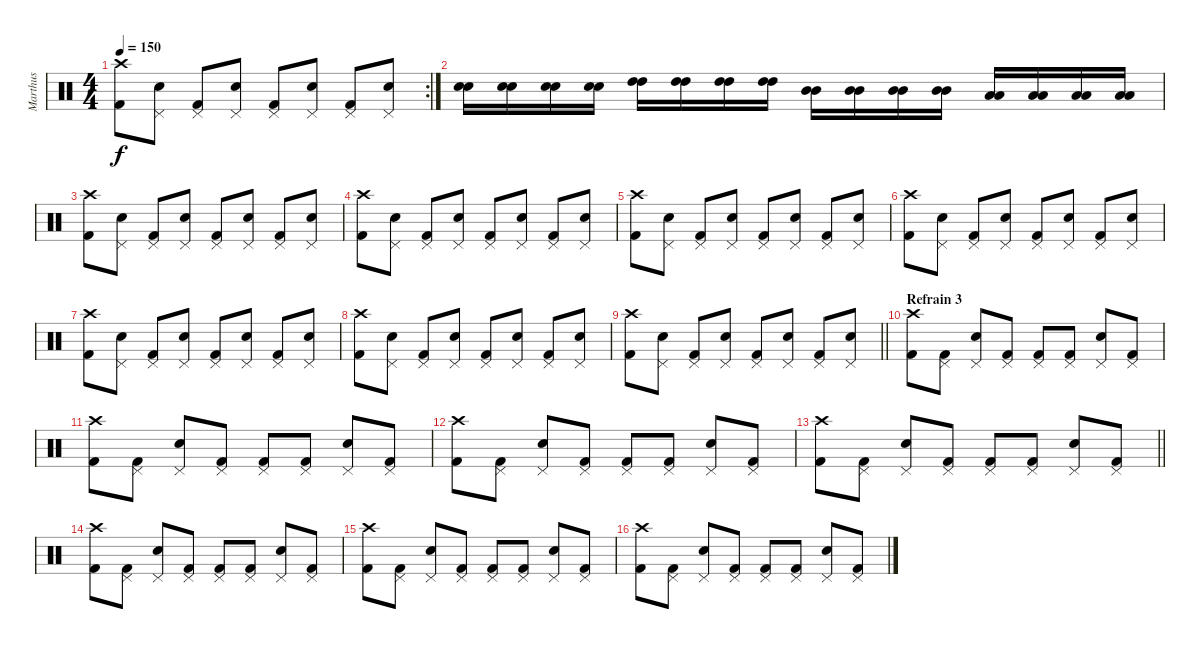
\track ("Marthus" "Marthus") {instrument percussion}
\staff {score}
\articulation defaults
\rc 2
\ts (4 4)
\tempo 150
\clef neutral
\ks c
("Kick (hit) 2" "Crash high (hit)").8{dy f} ("Electric Snare (hit)" "Pedal Hi-Hat (hit)").8 ("Kick (hit) 2" "Pedal Hi-Hat (hit)").8 ("Electric Snare (hit)" "Pedal Hi-Hat (hit)").8 ("Kick (hit) 2" "Pedal Hi-Hat (hit)").8 ("Electric Snare (hit)" "Pedal Hi-Hat (hit)").8 ("Kick (hit) 2" "Pedal Hi-Hat (hit)").8 ("Electric Snare (hit)" "Pedal Hi-Hat (hit)").8 |
("Electric Snare (hit)" "Electric Snare (hit)").16 ("Electric Snare (hit)" "Electric Snare (hit)").16 ("Electric Snare (hit)" "Electric Snare (hit)").16 ("Electric Snare (hit)" "Electric Snare (hit)").16 ("High Tom (hit)" "High Tom (hit)").16 ("High Tom (hit)" "High Tom (hit)").16 ("High Tom (hit)" "High Tom (hit)").16 ("High Tom (hit)" "High Tom (hit)").16 ("Mid Tom (hit)" "Mid Tom (hit)").16 ("Mid Tom (hit)" "Mid Tom (hit)").16 ("Mid Tom (hit)" "Mid Tom (hit)").16 ("Mid Tom (hit)" "Mid Tom (hit)").16 ("Low Tom (hit)" "Low Tom (hit)").16 ("Low Tom (hit)" "Low Tom (hit)").16 ("Low Tom (hit)" "Low Tom (hit)").16 ("Low Tom (hit)" "Low Tom (hit)").16 |
("Kick (hit) 2" "Crash high (hit)").8 ("Electric Snare (hit)" "Pedal Hi-Hat (hit)").8 ("Kick (hit) 2" "Pedal Hi-Hat (hit)").8 ("Electric Snare (hit)" "Pedal Hi-Hat (hit)").8 ("Kick (hit) 2" "Pedal Hi-Hat (hit)").8 ("Electric Snare (hit)" "Pedal Hi-Hat (hit)").8 ("Kick (hit) 2" "Pedal Hi-Hat (hit)").8 ("Electric Snare (hit)" "Pedal Hi-Hat (hit)").8 |
("Kick (hit) 2" "Crash high (hit)").8 ("Electric Snare (hit)" "Pedal Hi-Hat (hit)").8 ("Kick (hit) 2" "Pedal Hi-Hat (hit)").8 ("Electric Snare (hit)" "Pedal Hi-Hat (hit)").8 ("Kick (hit) 2" "Pedal Hi-Hat (hit)").8 ("Electric Snare (hit)" "Pedal Hi-Hat (hit)").8 ("Kick (hit) 2" "Pedal Hi-Hat (hit)").8 ("Electric Snare (hit)" "Pedal Hi-Hat (hit)").8 |
("Kick (hit) 2" "Crash high (hit)").8 ("Electric Snare (hit)" "Pedal Hi-Hat (hit)").8 ("Kick (hit) 2" "Pedal Hi-Hat (hit)").8 ("Electric Snare (hit)" "Pedal Hi-Hat (hit)").8 ("Kick (hit) 2" "Pedal Hi-Hat (hit)").8 ("Electric Snare (hit)" "Pedal Hi-Hat (hit)").8 ("Kick (hit) 2" "Pedal Hi-Hat (hit)").8 ("Electric Snare (hit)" "Pedal Hi-Hat (hit)").8 |
("Kick (hit) 2" "Crash high (hit)").8 ("Electric Snare (hit)" "Pedal Hi-Hat (hit)").8 ("Kick (hit) 2" "Pedal Hi-Hat (hit)").8 ("Electric Snare (hit)" "Pedal Hi-Hat (hit)").8 ("Kick (hit) 2" "Pedal Hi-Hat (hit)").8 ("Electric Snare (hit)" "Pedal Hi-Hat (hit)").8 ("Kick (hit) 2" "Pedal Hi-Hat (hit)").8 ("Electric Snare (hit)" "Pedal Hi-Hat (hit)").8 |
("Kick (hit) 2" "Crash high (hit)").8 ("Electric Snare (hit)" "Pedal Hi-Hat (hit)").8 ("Kick (hit) 2" "Pedal Hi-Hat (hit)").8 ("Electric Snare (hit)" "Pedal Hi-Hat (hit)").8 ("Kick (hit) 2" "Pedal Hi-Hat (hit)").8 ("Electric Snare (hit)" "Pedal Hi-Hat (hit)").8 ("Kick (hit) 2" "Pedal Hi-Hat (hit)").8 ("Electric Snare (hit)" "Pedal Hi-Hat (hit)").8 |
("Kick (hit) 2" "Crash high (hit)").8 ("Electric Snare (hit)" "Pedal Hi-Hat (hit)").8 ("Kick (hit) 2" "Pedal Hi-Hat (hit)").8 ("Electric Snare (hit)" "Pedal Hi-Hat (hit)").8 ("Kick (hit) 2" "Pedal Hi-Hat (hit)").8 ("Electric Snare (hit)" "Pedal Hi-Hat (hit)").8 ("Kick (hit) 2" "Pedal Hi-Hat (hit)").8 ("Electric Snare (hit)" "Pedal Hi-Hat (hit)").8 |
\barLineRight lightlight
("Kick (hit) 2" "Crash high (hit)").8 ("Electric Snare (hit)" "Pedal Hi-Hat (hit)").8 ("Kick (hit) 2" "Pedal Hi-Hat (hit)").8 ("Electric Snare (hit)" "Pedal Hi-Hat (hit)").8 ("Kick (hit) 2" "Pedal Hi-Hat (hit)").8 ("Electric Snare (hit)" "Pedal Hi-Hat (hit)").8 ("Kick (hit) 2" "Pedal Hi-Hat (hit)").8 ("Electric Snare (hit)" "Pedal Hi-Hat (hit)").8 |
\section ("" "Refrain 3")
("Kick (hit) 2" "Crash high (hit)").8 ("Kick (hit) 2" "Pedal Hi-Hat (hit)").8 ("Electric Snare (hit)" "Pedal Hi-Hat (hit)").8 ("Kick (hit) 2" "Pedal Hi-Hat (hit)").8 ("Kick (hit) 2" "Pedal Hi-Hat (hit)").8 ("Kick (hit) 2" "Pedal Hi-Hat (hit)").8 ("Electric Snare (hit)" "Pedal Hi-Hat (hit)").8 ("Kick (hit) 2" "Pedal Hi-Hat (hit)").8 |
("Kick (hit) 2" "Crash high (hit)").8 ("Kick (hit) 2" "Pedal Hi-Hat (hit)").8 ("Electric Snare (hit)" "Pedal Hi-Hat (hit)").8 ("Kick (hit) 2" "Pedal Hi-Hat (hit)").8 ("Kick (hit) 2" "Pedal Hi-Hat (hit)").8 ("Kick (hit) 2" "Pedal Hi-Hat (hit)").8 ("Electric Snare (hit)" "Pedal Hi-Hat (hit)").8 ("Kick (hit) 2" "Pedal Hi-Hat (hit)").8 |
("Kick (hit) 2" "Crash high (hit)").8 ("Kick (hit) 2" "Pedal Hi-Hat (hit)").8 ("Electric Snare (hit)" "Pedal Hi-Hat (hit)").8 ("Kick (hit) 2" "Pedal Hi-Hat (hit)").8 ("Kick (hit) 2" "Pedal Hi-Hat (hit)").8 ("Kick (hit) 2" "Pedal Hi-Hat (hit)").8 ("Electric Snare (hit)" "Pedal Hi-Hat (hit)").8 ("Kick (hit) 2" "Pedal Hi-Hat (hit)").8 |
\barLineRight lightlight
("Kick (hit) 2" "Crash high (hit)").8 ("Kick (hit) 2" "Pedal Hi-Hat (hit)").8 ("Electric Snare (hit)" "Pedal Hi-Hat (hit)").8 ("Kick (hit) 2" "Pedal Hi-Hat (hit)").8 ("Kick (hit) 2" "Pedal Hi-Hat (hit)").8 ("Kick (hit) 2" "Pedal Hi-Hat (hit)").8 ("Electric Snare (hit)" "Pedal Hi-Hat (hit)").8 ("Kick (hit) 2" "Pedal Hi-Hat (hit)").8 |
("Kick (hit) 2" "Crash high (hit)").8 ("Kick (hit) 2" "Pedal Hi-Hat (hit)").8 ("Electric Snare (hit)" "Pedal Hi-Hat (hit)").8 ("Kick (hit) 2" "Pedal Hi-Hat (hit)").8 ("Kick (hit) 2" "Pedal Hi-Hat (hit)").8 ("Kick (hit) 2" "Pedal Hi-Hat (hit)").8 ("Electric Snare (hit)" "Pedal Hi-Hat (hit)").8 ("Kick (hit) 2" "Pedal Hi-Hat (hit)").8 |
("Kick (hit) 2" "Crash high (hit)").8 ("Kick (hit) 2" "Pedal Hi-Hat (hit)").8 ("Electric Snare (hit)" "Pedal Hi-Hat (hit)").8 ("Kick (hit) 2" "Pedal Hi-Hat (hit)").8 ("Kick (hit) 2" "Pedal Hi-Hat (hit)").8 ("Kick (hit) 2" "Pedal Hi-Hat (hit)").8 ("Electric Snare (hit)" "Pedal Hi-Hat (hit)").8 ("Kick (hit) 2" "Pedal Hi-Hat (hit)").8 |
("Kick (hit) 2" "Crash high (hit)").8 ("Kick (hit) 2" "Pedal Hi-Hat (hit)").8 ("Electric Snare (hit)" "Pedal Hi-Hat (hit)").8 ("Kick (hit) 2" "Pedal Hi-Hat (hit)").8 ("Kick (hit) 2" "Pedal Hi-Hat (hit)").8 ("Kick (hit) 2" "Pedal Hi-Hat (hit)").8 ("Electric Snare (hit)" "Pedal Hi-Hat (hit)").8 ("Kick (hit) 2" "Pedal Hi-Hat (hit)").8
